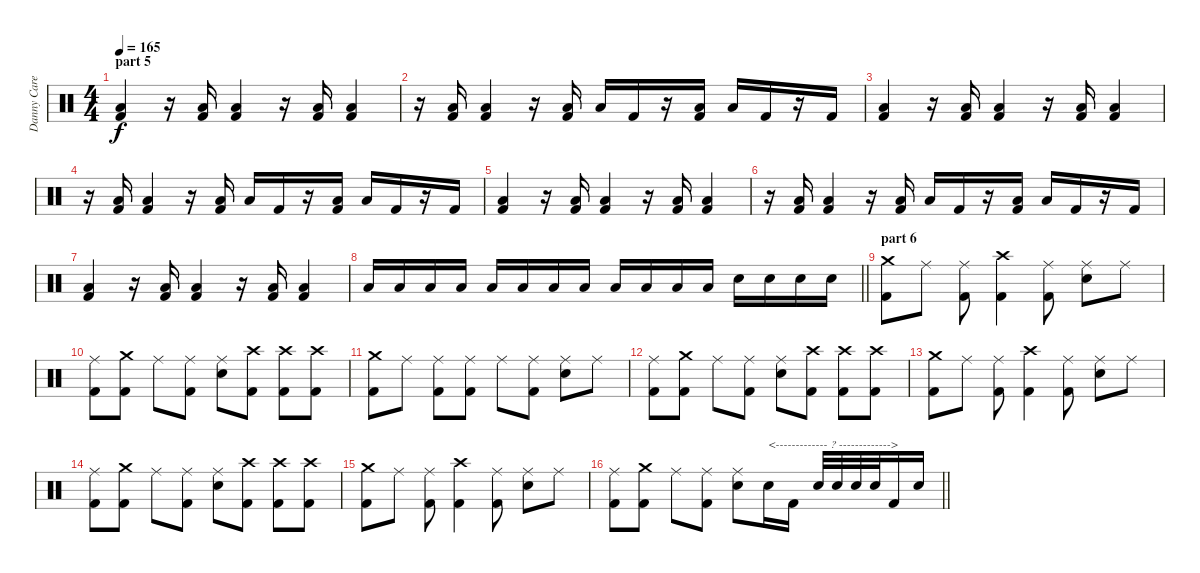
\track ("Danny Carey / drums" "Danny Care") {instrument percussion}
\staff {score}
\articulation defaults
\ts (4 4)
\section ("" "part 5")
\tempo 165
\clef neutral
\ks c
("Low Tom (hit)" "Kick (hit) 2").4{dy f} r.16 ("Low Floor Tom (hit)" "Kick (hit) 2").16 ("Low Tom (hit)" "Kick (hit) 2").4 r.16 ("Low Floor Tom (hit)" "Kick (hit) 2").16 ("Low Tom (hit)" "Kick (hit) 2").4 |
r.16 ("Low Floor Tom (hit)" "Kick (hit) 2").16 ("Low Tom (hit)" "Kick (hit) 2").4 r.16 ("Low Floor Tom (hit)" "Kick (hit) 2").16 "Low Tom (hit)".16 "Kick (hit) 2".16 r.16 ("Low Floor Tom (hit)" "Kick (hit) 2").16 "Low Tom (hit)".16 "Kick (hit) 2".16 r.16 "Kick (hit) 2".16 |
("Low Tom (hit)" "Kick (hit) 2").4 r.16 ("Low Floor Tom (hit)" "Kick (hit) 2").16 ("Low Tom (hit)" "Kick (hit) 2").4 r.16 ("Low Floor Tom (hit)" "Kick (hit) 2").16 ("Low Tom (hit)" "Kick (hit) 2").4 |
r.16 ("Low Floor Tom (hit)" "Kick (hit) 2").16 ("Low Tom (hit)" "Kick (hit) 2").4 r.16 ("Low Floor Tom (hit)" "Kick (hit) 2").16 "Low Tom (hit)".16 "Kick (hit) 2".16 r.16 ("Low Floor Tom (hit)" "Kick (hit) 2").16 "Low Tom (hit)".16 "Kick (hit) 2".16 r.16 "Kick (hit) 2".16 |
("Low Tom (hit)" "Kick (hit) 2").4 r.16 ("Low Floor Tom (hit)" "Kick (hit) 2").16 ("Low Tom (hit)" "Kick (hit) 2").4 r.16 ("Low Floor Tom (hit)" "Kick (hit) 2").16 ("Low Tom (hit)" "Kick (hit) 2").4 |
r.16 ("Low Floor Tom (hit)" "Kick (hit) 2").16 ("Low Tom (hit)" "Kick (hit) 2").4 r.16 ("Low Floor Tom (hit)" "Kick (hit) 2").16 "Low Tom (hit)".16 "Kick (hit) 2".16 r.16 ("Low Floor Tom (hit)" "Kick (hit) 2").16 "Low Tom (hit)".16 "Kick (hit) 2".16 r.16 "Kick (hit) 2".16 |
("Low Tom (hit)" "Kick (hit) 2").4 r.16 ("Low Floor Tom (hit)" "Kick (hit) 2").16 ("Low Tom (hit)" "Kick (hit) 2").4 r.16 ("Low Floor Tom (hit)" "Kick (hit) 2").16 ("Low Tom (hit)" "Kick (hit) 2").4 |
\barLineRight lightlight "Low Tom (hit)".16 "Low Tom (hit)".16 "Low Tom (hit)".16 "Low Tom (hit)".16 "Low Tom (hit)".16 "Low Tom (hit)".16 "Low Tom (hit)".16 "Low Tom (hit)".16 "Low Floor Tom (hit)".16 "Low Floor Tom (hit)".16 "Low Floor Tom (hit)".16 "Low Floor Tom (hit)".16 "Electric Snare (hit)".16 "Electric Snare (hit)".16 "Electric Snare (hit)".16 "Electric Snare (hit)".16
|
\section ("" "part 6")
("Crash medium (hit)" "Kick (hit) 2").8 "Ride (middle)".8 ("Ride (middle)" "Kick (hit) 2").8 ("Crash high (hit)" "Kick (hit) 2").4 ("Ride (middle)" "Kick (hit) 2").8 ("Ride (middle)" "Electric Snare (hit)").8 "Ride (middle)".8 |
("Ride (middle)" "Kick (hit) 2").8 ("Crash medium (hit)" "Kick (hit) 2").8 "Ride (middle)".8 ("Ride (middle)" "Kick (hit) 2").8 ("Ride (middle)" "Electric Snare (hit)").8 ("Crash high (hit)" "Kick (hit) 2").8 ("Crash high (hit)" "Kick (hit) 2").8 ("Crash high (hit)" "Kick (hit) 2").8 |
("Crash medium (hit)" "Kick (hit) 2").8 "Ride (middle)".8 ("Ride (middle)" "Kick (hit) 2").8 ("Ride (middle)" "Kick (hit) 2").8 "Ride (middle)".8 ("Ride (middle)" "Kick (hit) 2").8 ("Ride (middle)" "Electric Snare (hit)").8 "Ride (middle)".8 |
("Ride (middle)" "Kick (hit) 2").8 ("Crash medium (hit)" "Kick (hit) 2").8 "Ride (middle)".8 ("Ride (middle)" "Kick (hit) 2").8 ("Ride (middle)" "Electric Snare (hit)").8 ("Crash high (hit)" "Kick (hit) 2").8 ("Crash high (hit)" "Kick (hit) 2").8 ("Crash high (hit)" "Kick (hit) 2").8 |
("Crash medium (hit)" "Kick (hit) 2").8 "Ride (middle)".8 ("Ride (middle)" "Kick (hit) 2").8 ("Crash high (hit)" "Kick (hit) 2").4 ("Ride (middle)" "Kick (hit) 2").8 ("Ride (middle)" "Electric Snare (hit)").8 "Ride (middle)".8 |
("Ride (middle)" "Kick (hit) 2").8 ("Crash medium (hit)" "Kick (hit) 2").8 "Ride (middle)".8 ("Ride (middle)" "Kick (hit) 2").8 ("Ride (middle)" "Electric Snare (hit)").8 ("Crash high (hit)" "Kick (hit) 2").8 ("Crash high (hit)" "Kick (hit) 2").8 ("Crash high (hit)" "Kick (hit) 2").8 |
("Crash medium (hit)" "Kick (hit) 2").8 "Ride (middle)".8 ("Ride (middle)" "Kick (hit) 2").8 ("Crash high (hit)" "Kick (hit) 2").4 ("Ride (middle)" "Kick (hit) 2").8 ("Ride (middle)" "Electric Snare (hit)").8 "Ride (middle)".8 |
\barLineRight lightlight
("Ride (middle)" "Kick (hit) 2").8 ("Crash medium (hit)" "Kick (hit) 2").8 "Ride (middle)".8 ("Ride (middle)" "Kick (hit) 2").8 ("Ride (middle)" "Electric Snare (hit)").8 "Electric Snare (hit)".16{txt "<------------- ? ------------->"} "Kick (hit) 2".16 "Electric Snare (hit)".32 "Electric Snare (hit)".32 "Electric Snare (hit)".32 "Electric Snare (hit)".32 "Kick (hit) 2".16 "Electric Snare (hit)".16
